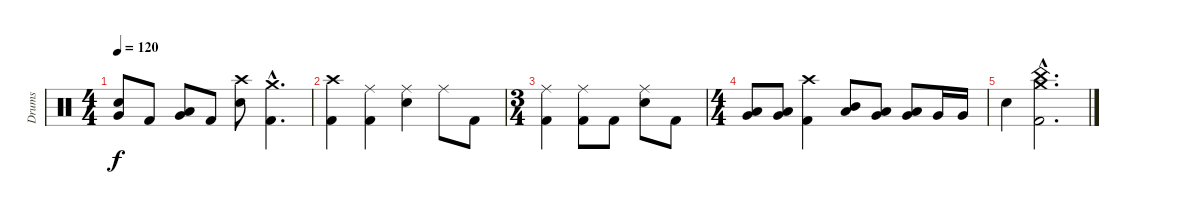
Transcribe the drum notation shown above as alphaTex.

\track ("Drums" "Drums") {instrument percussion}
\staff {score}
\articulation defaults
\ts (4 4)
\tempo 120
\clef neutral
\ks c
("Electric Snare (hit)" "Very Low Tom (hit)").8{dy f} "Kick (hit) 2".8 ("Low Tom (hit)" "Very Low Tom (hit)").8 "Kick (hit) 2".8 ("Crash high (hit)" "Electric Snare (hit)").8 ("Crash medium (hit)"{hac} "Kick (hit) 2"{hac}).4{d} |
("Crash high (hit)" "Kick (hit) 2").4 ("Ride (middle)" "Kick (hit) 2").4 ("Ride (middle)" "Electric Snare (hit)").4 "Ride (middle)".8 "Kick (hit) 2".8 |
\ts (3 4)
("Ride (middle)" "Kick (hit) 2").4 ("Ride (middle)" "Kick (hit) 2").8 "Kick (hit) 2".8 ("Ride (middle)" "Electric Snare (hit)").8 "Kick (hit) 2".8 |
\ts (4 4)
("Low Tom (hit)" "Very Low Tom (hit)").8 ("Low Tom (hit)" "Very Low Tom (hit)").8 ("Crash high (hit)" "Kick (hit) 2").4 ("Mid Tom (hit)" "Low Tom (hit)").8 ("Low Tom (hit)" "Very Low Tom (hit)").8 ("Low Tom (hit)" "Very Low Tom (hit)").8 "Very Low Tom (hit)".16 "Very Low Tom (hit)".16 |
"Electric Snare (hit)".4 ("Crash medium (hit)"{hac} "China (hit)"{hac} "Kick (hit) 2"{hac}).2{d}
